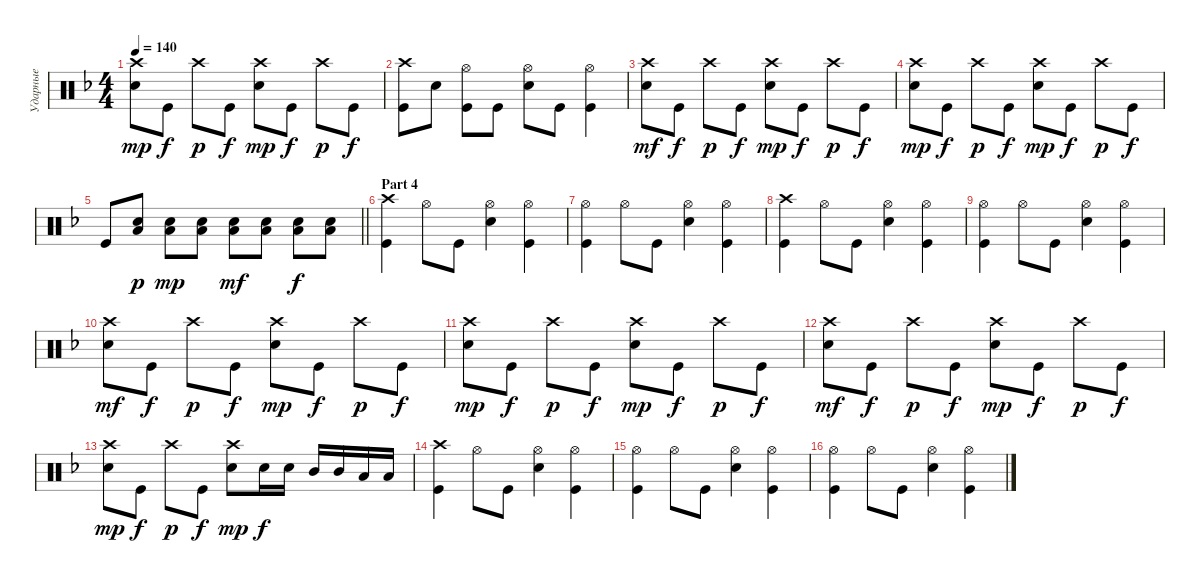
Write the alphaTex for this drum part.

\track ("Ударные" "Ударные") {instrument percussion}
\staff {score}
\articulation defaults
\ts (4 4)
\tempo 140
\clef neutral
\ks dminor
("Snare (hit) 2" "Crash high (hit)").8{dy mp} "Kick (hit)".8{dy f} "Crash high (hit)".8{dy p} "Kick (hit)".8{dy f} ("Snare (hit) 2" "Crash high (hit)").8{dy mp} "Kick (hit)".8{dy f} "Crash high (hit)".8{dy p} "Kick (hit)".8{dy f} |
("Kick (hit)" "Crash high (hit)").8 "Snare (hit) 2".8 ("Kick (hit)" "Hi-Hat (open)").8 "Kick (hit)".8 ("Snare (hit) 2" "Hi-Hat (open)").8 "Kick (hit)".8 ("Kick (hit)" "Hi-Hat (open)").4 |
("Snare (hit) 2" "Crash high (hit)").8{dy mf} "Kick (hit)".8{dy f} "Crash high (hit)".8{dy p} "Kick (hit)".8{dy f} ("Snare (hit) 2" "Crash high (hit)").8{dy mp} "Kick (hit)".8{dy f} "Crash high (hit)".8{dy p} "Kick (hit)".8{dy f} |
("Snare (hit) 2" "Crash high (hit)").8{dy mp} "Kick (hit)".8{dy f} "Crash high (hit)".8{dy p} "Kick (hit)".8{dy f} ("Snare (hit) 2" "Crash high (hit)").8{dy mp} "Kick (hit)".8{dy f} "Crash high (hit)".8{dy p} "Kick (hit)".8{dy f} |
\barLineRight lightlight "Kick (hit)".8{bd 60}
("Snare (hit) 2" "Low Tom (hit)").8{bd 60 dy p} ("Snare (hit) 2" "Low Tom (hit)").8{bd 60 dy mp} ("Snare (hit) 2" "Low Tom (hit)").8{bd 60} ("Snare (hit) 2" "Low Tom (hit)").8{bd 60 dy mf} ("Snare (hit) 2" "Low Tom (hit)").8{bd 60} ("Snare (hit) 2" "Low Tom (hit)").8{bd 60 dy f} ("Snare (hit) 2" "Low Tom (hit)").8{bd 60} |
\section ("" "Part 4")
("Kick (hit)" "Crash high (hit)").4 "Hi-Hat (open)".8 "Kick (hit)".8 ("Snare (hit) 2" "Hi-Hat (open)").4 ("Kick (hit)" "Hi-Hat (open)").4 |
("Kick (hit)" "Hi-Hat (open)").4 "Hi-Hat (open)".8 "Kick (hit)".8 ("Snare (hit) 2" "Hi-Hat (open)").4 ("Kick (hit)" "Hi-Hat (open)").4 |
("Kick (hit)" "Crash high (hit)").4 "Hi-Hat (open)".8 "Kick (hit)".8 ("Snare (hit) 2" "Hi-Hat (open)").4 ("Kick (hit)" "Hi-Hat (open)").4 |
("Kick (hit)" "Hi-Hat (open)").4 "Hi-Hat (open)".8 "Kick (hit)".8 ("Snare (hit) 2" "Hi-Hat (open)").4 ("Kick (hit)" "Hi-Hat (open)").4 |
("Snare (hit) 2" "Crash high (hit)").8{dy mf} "Kick (hit)".8{dy f} "Crash high (hit)".8{dy p} "Kick (hit)".8{dy f} ("Snare (hit) 2" "Crash high (hit)").8{dy mp} "Kick (hit)".8{dy f} "Crash high (hit)".8{dy p} "Kick (hit)".8{dy f} |
("Snare (hit) 2" "Crash high (hit)").8{dy mp} "Kick (hit)".8{dy f} "Crash high (hit)".8{dy p} "Kick (hit)".8{dy f} ("Snare (hit) 2" "Crash high (hit)").8{dy mp} "Kick (hit)".8{dy f} "Crash high (hit)".8{dy p} "Kick (hit)".8{dy f} |
("Snare (hit) 2" "Crash high (hit)").8{dy mf} "Kick (hit)".8{dy f} "Crash high (hit)".8{dy p} "Kick (hit)".8{dy f} ("Snare (hit) 2" "Crash high (hit)").8{dy mp} "Kick (hit)".8{dy f} "Crash high (hit)".8{dy p} "Kick (hit)".8{dy f} |
("Snare (hit) 2" "Crash high (hit)").8{dy mp} "Kick (hit)".8{dy f} "Crash high (hit)".8{dy p} "Kick (hit)".8{dy f} ("Snare (hit) 2" "Crash high (hit)").8{dy mp} "Snare (hit) 2".16{dy f} "Snare (hit) 2".16 "Mid Tom (hit)".16 "Mid Tom (hit)".16 "Low Tom (hit)".16 "Low Tom (hit)".16 |
("Kick (hit)" "Crash high (hit)").4 "Hi-Hat (open)".8 "Kick (hit)".8 ("Snare (hit) 2" "Hi-Hat (open)").4 ("Kick (hit)" "Hi-Hat (open)").4 |
("Kick (hit)" "Hi-Hat (open)").4 "Hi-Hat (open)".8 "Kick (hit)".8 ("Snare (hit) 2" "Hi-Hat (open)").4 ("Kick (hit)" "Hi-Hat (open)").4 |
("Kick (hit)" "Hi-Hat (open)").4 "Hi-Hat (open)".8 "Kick (hit)".8 ("Snare (hit) 2" "Hi-Hat (open)").4 ("Kick (hit)" "Hi-Hat (open)").4
